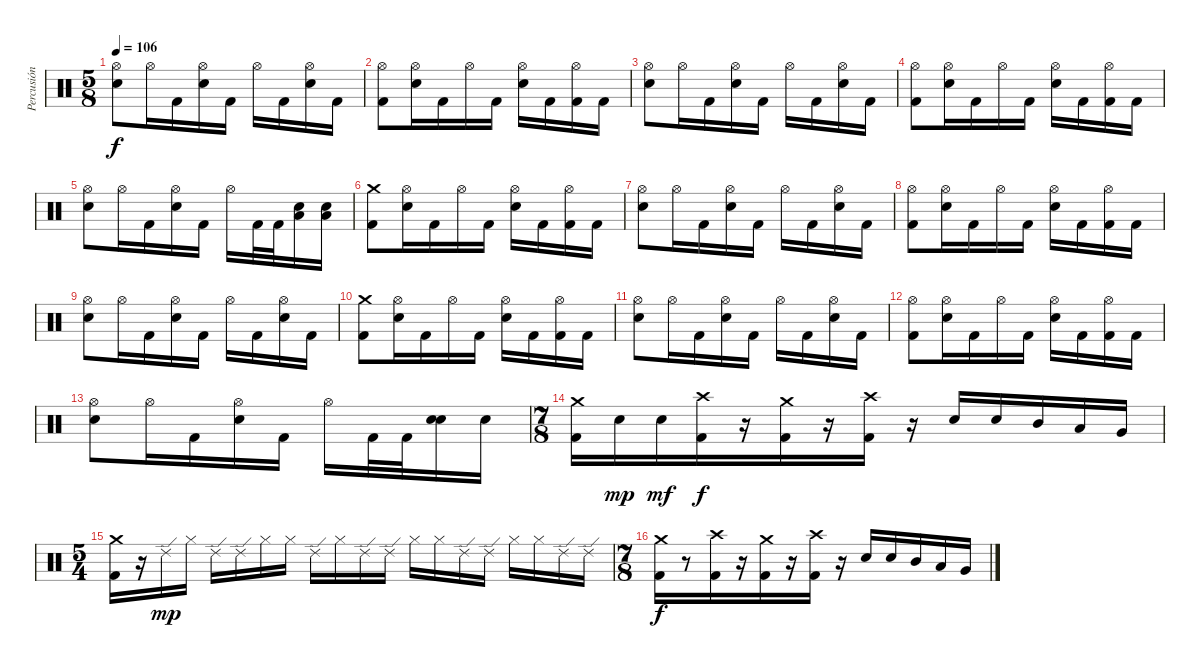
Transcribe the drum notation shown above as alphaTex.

\track ("Percusión" "Percusión") {instrument percussion}
\staff {score}
\articulation defaults
\ts (5 8)
\tempo 106
\clef neutral
\ks c
("Electric Snare (hit)" "Hi-Hat (open)").8{dy f} "Hi-Hat (open)".16 "Kick (hit) 2".16 ("Electric Snare (hit)" "Hi-Hat (open)").16 "Kick (hit) 2".16 "Hi-Hat (open)".16 "Kick (hit) 2".16 ("Electric Snare (hit)" "Hi-Hat (open)").16 "Kick (hit) 2".16 |
("Kick (hit) 2" "Hi-Hat (open)").8 ("Electric Snare (hit)" "Hi-Hat (open)").16 "Kick (hit) 2".16 "Hi-Hat (open)".16 "Kick (hit) 2".16 ("Electric Snare (hit)" "Hi-Hat (open)").16 "Kick (hit) 2".16 ("Kick (hit) 2" "Hi-Hat (open)").16 "Kick (hit) 2".16 |
("Electric Snare (hit)" "Hi-Hat (open)").8 "Hi-Hat (open)".16 "Kick (hit) 2".16 ("Electric Snare (hit)" "Hi-Hat (open)").16 "Kick (hit) 2".16 "Hi-Hat (open)".16 "Kick (hit) 2".16 ("Electric Snare (hit)" "Hi-Hat (open)").16 "Kick (hit) 2".16 |
("Kick (hit) 2" "Hi-Hat (open)").8 ("Electric Snare (hit)" "Hi-Hat (open)").16 "Kick (hit) 2".16 "Hi-Hat (open)".16 "Kick (hit) 2".16 ("Electric Snare (hit)" "Hi-Hat (open)").16 "Kick (hit) 2".16 ("Kick (hit) 2" "Hi-Hat (open)").16 "Kick (hit) 2".16 |
("Electric Snare (hit)" "Hi-Hat (open)").8 "Hi-Hat (open)".16 "Kick (hit) 2".16 ("Electric Snare (hit)" "Hi-Hat (open)").16 "Kick (hit) 2".16 "Hi-Hat (open)".16 "Kick (hit) 2".32 "Kick (hit) 2".32 ("Low Tom (hit)" "Electric Snare (hit)").16 ("Low Tom (hit)" "Electric Snare (hit)").16 |
("Kick (hit) 2" "Crash medium (hit)").8 ("Electric Snare (hit)" "Hi-Hat (open)").16 "Kick (hit) 2".16 "Hi-Hat (open)".16 "Kick (hit) 2".16 ("Electric Snare (hit)" "Hi-Hat (open)").16 "Kick (hit) 2".16 ("Kick (hit) 2" "Hi-Hat (open)").16 "Kick (hit) 2".16 |
("Electric Snare (hit)" "Hi-Hat (open)").8 "Hi-Hat (open)".16 "Kick (hit) 2".16 ("Electric Snare (hit)" "Hi-Hat (open)").16 "Kick (hit) 2".16 "Hi-Hat (open)".16 "Kick (hit) 2".16 ("Electric Snare (hit)" "Hi-Hat (open)").16 "Kick (hit) 2".16 |
("Kick (hit) 2" "Hi-Hat (open)").8 ("Electric Snare (hit)" "Hi-Hat (open)").16 "Kick (hit) 2".16 "Hi-Hat (open)".16 "Kick (hit) 2".16 ("Electric Snare (hit)" "Hi-Hat (open)").16 "Kick (hit) 2".16 ("Kick (hit) 2" "Hi-Hat (open)").16 "Kick (hit) 2".16 |
("Electric Snare (hit)" "Hi-Hat (open)").8 "Hi-Hat (open)".16 "Kick (hit) 2".16 ("Electric Snare (hit)" "Hi-Hat (open)").16 "Kick (hit) 2".16 "Hi-Hat (open)".16 "Kick (hit) 2".16 ("Electric Snare (hit)" "Hi-Hat (open)").16 "Kick (hit) 2".16 |
("Crash medium (hit)" "Kick (hit) 2").8 ("Electric Snare (hit)" "Hi-Hat (open)").16 "Kick (hit) 2".16 "Hi-Hat (open)".16 "Kick (hit) 2".16 ("Electric Snare (hit)" "Hi-Hat (open)").16 "Kick (hit) 2".16 ("Kick (hit) 2" "Hi-Hat (open)").16 "Kick (hit) 2".16 |
("Electric Snare (hit)" "Hi-Hat (open)").8 "Hi-Hat (open)".16 "Kick (hit) 2".16 ("Electric Snare (hit)" "Hi-Hat (open)").16 "Kick (hit) 2".16 "Hi-Hat (open)".16 "Kick (hit) 2".16 ("Electric Snare (hit)" "Hi-Hat (open)").16 "Kick (hit) 2".16 |
("Kick (hit) 2" "Hi-Hat (open)").8 ("Electric Snare (hit)" "Hi-Hat (open)").16 "Kick (hit) 2".16 "Hi-Hat (open)".16 "Kick (hit) 2".16 ("Electric Snare (hit)" "Hi-Hat (open)").16 "Kick (hit) 2".16 ("Kick (hit) 2" "Hi-Hat (open)").16 "Kick (hit) 2".16 |
("Electric Snare (hit)" "Hi-Hat (open)").8 "Hi-Hat (open)".16 "Kick (hit) 2".16 ("Electric Snare (hit)" "Hi-Hat (open)").16 "Kick (hit) 2".16 "Hi-Hat (open)".16 "Kick (hit) 2".32 "Kick (hit) 2".32 ("Electric Snare (hit)" "Electric Snare (hit)").16 "Electric Snare (hit)".16 |
\ts (7 8)
("Crash medium (hit)" "Kick (hit) 2").16 "Electric Snare (hit)".16{dy mp} "Electric Snare (hit)".16{dy mf} ("Crash high (hit)" "Kick (hit) 2").16{dy f} r.16 ("Crash medium (hit)" "Kick (hit) 2").16 r.16 ("Crash high (hit)" "Kick (hit) 2").16 r.16 "Electric Snare (hit)".16 "Electric Snare (hit)".16 "Mid Tom (hit)".16 "Low Tom (hit)".16 "Very Low Tom (hit)".16 |
\ts (5 4)
("Crash medium (hit)" "Kick (hit) 2").16 r.16 "Ride (edge) 2".16{dy mp} "Hi-Hat (closed)".16 "Ride (edge) 2".16 "Ride (edge) 2".16 "Hi-Hat (closed)".16 "Hi-Hat (closed)".16 "Ride (edge) 2".16 "Hi-Hat (closed)".16 "Ride (edge) 2".16 "Ride (edge) 2".16 "Hi-Hat (closed)".16 "Hi-Hat (closed)".16 "Ride (edge) 2".16 "Ride (edge) 2".16 "Hi-Hat (closed)".16 "Hi-Hat (closed)".16 "Ride (edge) 2".16 "Ride (edge) 2".16 |
\ts (7 8)
("Crash medium (hit)" "Kick (hit) 2").16{dy f} r.8 ("Crash high (hit)" "Kick (hit) 2").16 r.16 ("Crash medium (hit)" "Kick (hit) 2").16 r.16 ("Crash high (hit)" "Kick (hit) 2").16 r.16 "Electric Snare (hit)".16 "Electric Snare (hit)".16 "Mid Tom (hit)".16 "Low Tom (hit)".16 "Very Low Tom (hit)".16
